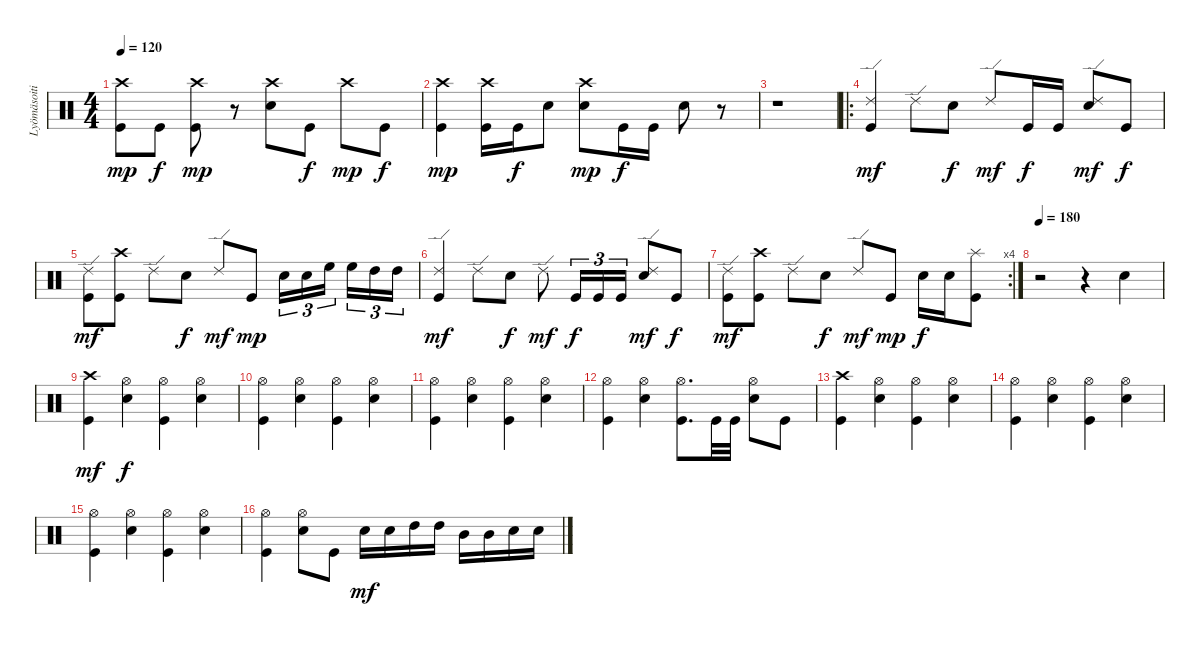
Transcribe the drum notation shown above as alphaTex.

\track ("Lyömäsoitin" "Lyömäsoiti") {instrument percussion}
\staff {score}
\articulation defaults
\ts (4 4)
\tempo 120
\clef neutral
\ks c
("Crash high (hit)" "Kick (hit)").8{dy mp} "Kick (hit)".8{dy f} ("Crash high (hit)" "Kick (hit)").8{dy mp} r.8 ("Crash high (hit)" "Snare (hit) 2").8 "Kick (hit)".8{dy f} "Crash high (hit)".8{dy mp} "Kick (hit)".8{dy f} |
("Crash high (hit)" "Kick (hit)").4{dy mp} ("Crash high (hit)" "Kick (hit)").16 "Kick (hit)".16{dy f} "Snare (hit) 2".8 ("Crash high (hit)" "Snare (hit) 2").8{dy mp} "Kick (hit)".16{dy f} "Kick (hit)".16 "Snare (hit) 2".8 r.8 |
r.1 |
\ro
("Ride (edge) 2" "Kick (hit)").4{dy mf} "Ride (edge) 2".8 "Snare (hit) 2".8{dy f} "Ride (edge) 2".8{dy mf} "Kick (hit)".16{dy f} "Kick (hit)".16 ("Ride (edge) 2" "Snare (hit) 2").8{dy mf} "Kick (hit)".8{dy f} |
("Ride (edge) 2" "Kick (hit)").8{dy mf} ("Crash high (hit)" "Kick (hit)").8 "Ride (edge) 2".8 "Snare (hit) 2".8{dy f} "Ride (edge) 2".8{dy mf} "Kick (hit)".8{dy mp} "Snare (hit) 2".16{tu (3 2)} "Snare (hit) 2".16{tu (3 2)} "High Floor Tom (hit)".16{tu (3 2) beam splitsecondary} "High Floor Tom (hit)".16{tu (3 2)} "High Tom (hit)".16{tu (3 2)} "High Tom (hit)".16{tu (3 2)} |
("Ride (edge) 2" "Kick (hit)").4{dy mf} "Ride (edge) 2".8 "Snare (hit) 2".8{dy f} "Ride (edge) 2".8{dy mf} "Kick (hit)".16{tu (3 2) dy f} "Kick (hit)".16{tu (3 2)} "Kick (hit)".16{tu (3 2)} ("Ride (edge) 2" "Snare (hit) 2").8{dy mf} "Kick (hit)".8{dy f} |
\rc 4
("Ride (edge) 2" "Kick (hit)").8{dy mf} ("Crash high (hit)" "Kick (hit)").8 "Ride (edge) 2".8 "Snare (hit) 2".8{dy f} "Ride (edge) 2".8{dy mf} "Kick (hit)".8{dy mp} "Snare (hit) 2".16{dy f} "Snare (hit) 2".16 ("Splash (hit)" "Kick (hit)").8 |
\tempo 180
r.2 r.4 "Snare (hit) 2".4 |
("Crash high (hit)" "Kick (hit)").4{dy mf} ("Hi-Hat (open)" "Snare (hit) 2").4{dy f} ("Hi-Hat (open)" "Kick (hit)").4 ("Hi-Hat (open)" "Snare (hit) 2").4 |
("Hi-Hat (open)" "Kick (hit)").4 ("Hi-Hat (open)" "Snare (hit) 2").4 ("Hi-Hat (open)" "Kick (hit)").4 ("Hi-Hat (open)" "Snare (hit) 2").4 |
("Hi-Hat (open)" "Kick (hit)").4 ("Hi-Hat (open)" "Snare (hit) 2").4 ("Hi-Hat (open)" "Kick (hit)").4 ("Hi-Hat (open)" "Snare (hit) 2").4 |
("Hi-Hat (open)" "Kick (hit)").4 ("Hi-Hat (open)" "Snare (hit) 2").4 ("Hi-Hat (open)" "Kick (hit)").8{d} "Kick (hit)".32 "Kick (hit)".32 ("Hi-Hat (open)" "Snare (hit) 2").8 "Kick (hit)".8 |
("Crash high (hit)" "Kick (hit)").4 ("Hi-Hat (open)" "Snare (hit) 2").4 ("Hi-Hat (open)" "Kick (hit)").4 ("Hi-Hat (open)" "Snare (hit) 2").4 |
("Hi-Hat (open)" "Kick (hit)").4 ("Hi-Hat (open)" "Snare (hit) 2").4 ("Hi-Hat (open)" "Kick (hit)").4 ("Hi-Hat (open)" "Snare (hit) 2").4 |
("Hi-Hat (open)" "Kick (hit)").4 ("Hi-Hat (open)" "Snare (hit) 2").4 ("Hi-Hat (open)" "Kick (hit)").4 ("Hi-Hat (open)" "Snare (hit) 2").4 |
("Hi-Hat (open)" "Kick (hit)").4 ("Hi-Hat (open)" "Snare (hit) 2").8 "Kick (hit)".8 "Snare (hit) 2".16{dy mf} "Snare (hit) 2".16 "High Tom (hit)".16 "High Tom (hit)".16 "Mid Tom (hit)".16 "Mid Tom (hit)".16 "Snare (hit) 2".16 "Snare (hit) 2".16
